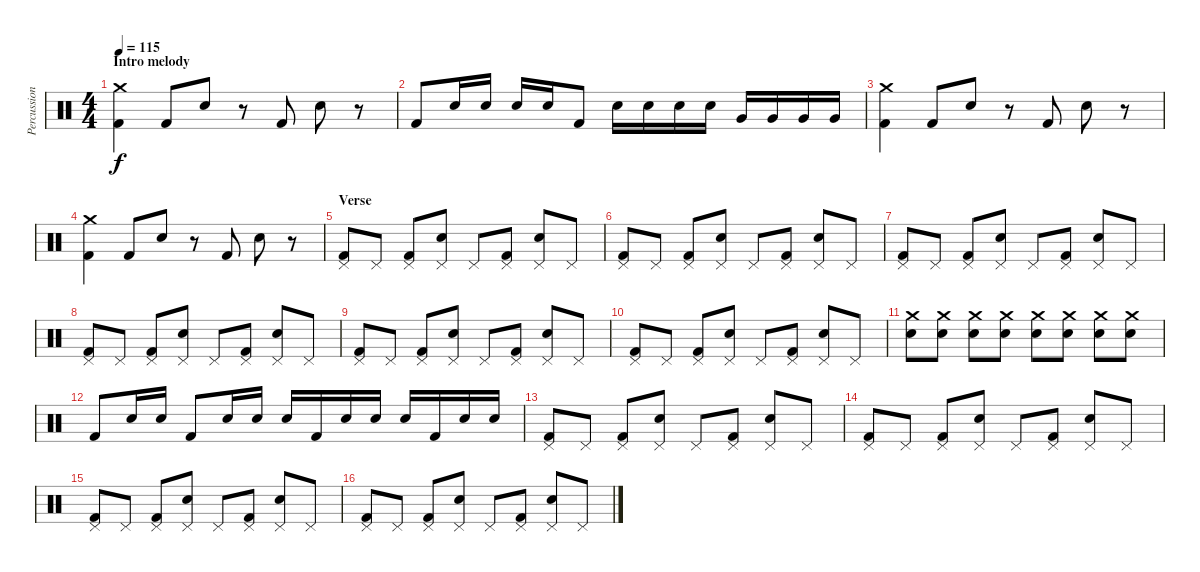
\track ("Percussioni" "Percussion") {instrument percussion}
\staff {score}
\articulation defaults
\ts (4 4)
\section ("" "Intro melody")
\tempo 115
\clef neutral
\ks c
("Crash medium (hit)" "Kick (hit) 2").4{dy f} "Kick (hit) 2".8 "Snare (hit) 2".8 r.8 "Kick (hit) 2".8 "Snare (hit) 2".8 r.8 |
"Kick (hit) 2".8 "Snare (hit) 2".16 "Snare (hit) 2".16 "Snare (hit) 2".16 "Snare (hit) 2".16 "Kick (hit) 2".8 "Snare (hit) 2".16 "Snare (hit) 2".16 "Snare (hit) 2".16 "Snare (hit) 2".16 "Very Low Tom (hit)".16 "Very Low Tom (hit)".16 "Very Low Tom (hit)".16 "Very Low Tom (hit)".16 |
("Crash medium (hit)" "Kick (hit) 2").4 "Kick (hit) 2".8 "Snare (hit) 2".8 r.8 "Kick (hit) 2".8 "Snare (hit) 2".8 r.8 |
("Crash medium (hit)" "Kick (hit) 2").4 "Kick (hit) 2".8 "Snare (hit) 2".8 r.8 "Kick (hit) 2".8 "Snare (hit) 2".8 r.8 |
\section ("" "Verse")
("Pedal Hi-Hat (hit)" "Kick (hit) 2").8 "Pedal Hi-Hat (hit)".8 ("Pedal Hi-Hat (hit)" "Kick (hit) 2").8 ("Pedal Hi-Hat (hit)" "Snare (hit) 2").8 "Pedal Hi-Hat (hit)".8 ("Pedal Hi-Hat (hit)" "Kick (hit) 2").8 ("Pedal Hi-Hat (hit)" "Snare (hit) 2").8 "Pedal Hi-Hat (hit)".8 |
("Pedal Hi-Hat (hit)" "Kick (hit) 2").8 "Pedal Hi-Hat (hit)".8 ("Pedal Hi-Hat (hit)" "Kick (hit) 2").8 ("Pedal Hi-Hat (hit)" "Snare (hit) 2").8 "Pedal Hi-Hat (hit)".8 ("Pedal Hi-Hat (hit)" "Kick (hit) 2").8 ("Pedal Hi-Hat (hit)" "Snare (hit) 2").8 "Pedal Hi-Hat (hit)".8 |
("Pedal Hi-Hat (hit)" "Kick (hit) 2").8 "Pedal Hi-Hat (hit)".8 ("Pedal Hi-Hat (hit)" "Kick (hit) 2").8 ("Pedal Hi-Hat (hit)" "Snare (hit) 2").8 "Pedal Hi-Hat (hit)".8 ("Pedal Hi-Hat (hit)" "Kick (hit) 2").8 ("Pedal Hi-Hat (hit)" "Snare (hit) 2").8 "Pedal Hi-Hat (hit)".8 |
("Pedal Hi-Hat (hit)" "Kick (hit) 2").8 "Pedal Hi-Hat (hit)".8 ("Pedal Hi-Hat (hit)" "Kick (hit) 2").8 ("Pedal Hi-Hat (hit)" "Snare (hit) 2").8 "Pedal Hi-Hat (hit)".8 ("Pedal Hi-Hat (hit)" "Kick (hit) 2").8 ("Pedal Hi-Hat (hit)" "Snare (hit) 2").8 "Pedal Hi-Hat (hit)".8 |
("Pedal Hi-Hat (hit)" "Kick (hit) 2").8 "Pedal Hi-Hat (hit)".8 ("Pedal Hi-Hat (hit)" "Kick (hit) 2").8 ("Pedal Hi-Hat (hit)" "Snare (hit) 2").8 "Pedal Hi-Hat (hit)".8 ("Pedal Hi-Hat (hit)" "Kick (hit) 2").8 ("Pedal Hi-Hat (hit)" "Snare (hit) 2").8 "Pedal Hi-Hat (hit)".8 |
("Pedal Hi-Hat (hit)" "Kick (hit) 2").8 "Pedal Hi-Hat (hit)".8 ("Pedal Hi-Hat (hit)" "Kick (hit) 2").8 ("Pedal Hi-Hat (hit)" "Snare (hit) 2").8 "Pedal Hi-Hat (hit)".8 ("Pedal Hi-Hat (hit)" "Kick (hit) 2").8 ("Pedal Hi-Hat (hit)" "Snare (hit) 2").8 "Pedal Hi-Hat (hit)".8 |
("Crash medium (hit)" "Electric Snare (hit)").8 ("Crash medium (hit)" "Electric Snare (hit)").8 ("Crash medium (hit)" "Electric Snare (hit)").8 ("Crash medium (hit)" "Electric Snare (hit)").8 ("Crash medium (hit)" "Electric Snare (hit)").8 ("Crash medium (hit)" "Electric Snare (hit)").8 ("Crash medium (hit)" "Electric Snare (hit)").8 ("Crash medium (hit)" "Electric Snare (hit)").8 |
"Kick (hit) 2".8 "Electric Snare (hit)".16 "Electric Snare (hit)".16 "Kick (hit) 2".8 "Electric Snare (hit)".16 "Electric Snare (hit)".16 "Electric Snare (hit)".16 "Kick (hit) 2".16 "Electric Snare (hit)".16 "Electric Snare (hit)".16 "Electric Snare (hit)".16 "Kick (hit) 2".16 "Electric Snare (hit)".16 "Electric Snare (hit)".16 |
("Pedal Hi-Hat (hit)" "Kick (hit) 2").8 "Pedal Hi-Hat (hit)".8 ("Pedal Hi-Hat (hit)" "Kick (hit) 2").8 ("Pedal Hi-Hat (hit)" "Snare (hit) 2").8 "Pedal Hi-Hat (hit)".8 ("Pedal Hi-Hat (hit)" "Kick (hit) 2").8 ("Pedal Hi-Hat (hit)" "Snare (hit) 2").8 "Pedal Hi-Hat (hit)".8 |
("Pedal Hi-Hat (hit)" "Kick (hit) 2").8 "Pedal Hi-Hat (hit)".8 ("Pedal Hi-Hat (hit)" "Kick (hit) 2").8 ("Pedal Hi-Hat (hit)" "Snare (hit) 2").8 "Pedal Hi-Hat (hit)".8 ("Pedal Hi-Hat (hit)" "Kick (hit) 2").8 ("Pedal Hi-Hat (hit)" "Snare (hit) 2").8 "Pedal Hi-Hat (hit)".8 |
("Pedal Hi-Hat (hit)" "Kick (hit) 2").8 "Pedal Hi-Hat (hit)".8 ("Pedal Hi-Hat (hit)" "Kick (hit) 2").8 ("Pedal Hi-Hat (hit)" "Snare (hit) 2").8 "Pedal Hi-Hat (hit)".8 ("Pedal Hi-Hat (hit)" "Kick (hit) 2").8 ("Pedal Hi-Hat (hit)" "Snare (hit) 2").8 "Pedal Hi-Hat (hit)".8 |
("Pedal Hi-Hat (hit)" "Kick (hit) 2").8 "Pedal Hi-Hat (hit)".8 ("Pedal Hi-Hat (hit)" "Kick (hit) 2").8 ("Pedal Hi-Hat (hit)" "Snare (hit) 2").8 "Pedal Hi-Hat (hit)".8 ("Pedal Hi-Hat (hit)" "Kick (hit) 2").8 ("Pedal Hi-Hat (hit)" "Snare (hit) 2").8 "Pedal Hi-Hat (hit)".8
